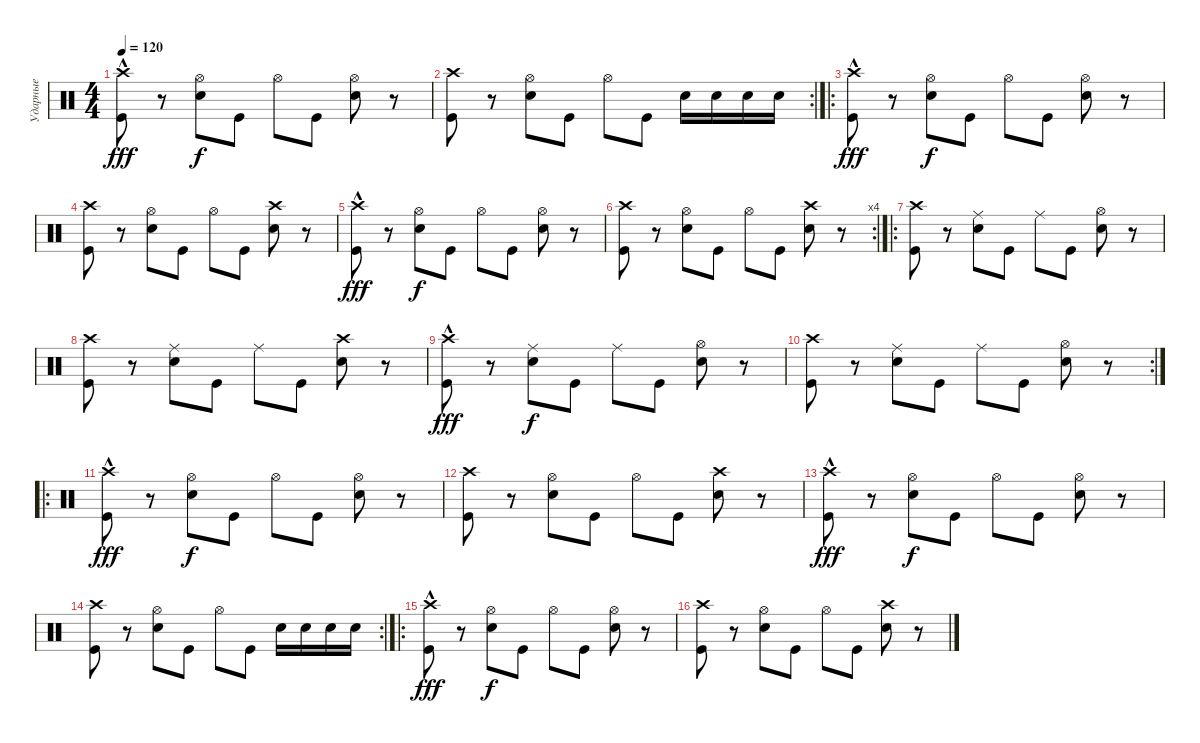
\track ("Ударные" "Ударные") {instrument percussion}
\staff {score}
\articulation defaults
\ts (4 4)
\tempo 120
\clef neutral
\ks c
("Kick (hit)" "Crash high (hit)"{hac}).8{dy fff} r.8 ("Snare (hit) 2" "Hi-Hat (open)").8{dy f} "Kick (hit)".8 "Hi-Hat (open)".8 "Kick (hit)".8 ("Snare (hit) 2" "Hi-Hat (open)").8 r.8 |
\rc 2
("Kick (hit)" "Crash high (hit)").8 r.8 ("Snare (hit) 2" "Hi-Hat (open)").8 "Kick (hit)".8 "Hi-Hat (open)".8 "Kick (hit)".8 "Snare (hit) 2".16 "Snare (hit) 2".16 "Snare (hit) 2".16 "Snare (hit) 2".16 |
\ro
("Kick (hit)" "Crash high (hit)"{hac}).8{dy fff} r.8 ("Snare (hit) 2" "Hi-Hat (open)").8{dy f} "Kick (hit)".8 "Hi-Hat (open)".8 "Kick (hit)".8 ("Snare (hit) 2" "Hi-Hat (open)").8 r.8 |
("Kick (hit)" "Crash high (hit)").8 r.8 ("Snare (hit) 2" "Hi-Hat (open)").8 "Kick (hit)".8 "Hi-Hat (open)".8 "Kick (hit)".8 ("Snare (hit) 2" "Crash high (hit)").8 r.8 |
("Kick (hit)" "Crash high (hit)"{hac}).8{dy fff} r.8 ("Snare (hit) 2" "Hi-Hat (open)").8{dy f} "Kick (hit)".8 "Hi-Hat (open)".8 "Kick (hit)".8 ("Snare (hit) 2" "Hi-Hat (open)").8 r.8 |
\rc 4
("Kick (hit)" "Crash high (hit)").8 r.8 ("Snare (hit) 2" "Hi-Hat (open)").8 "Kick (hit)".8 "Hi-Hat (open)".8 "Kick (hit)".8 ("Snare (hit) 2" "Crash high (hit)").8 r.8 |
\ro
("Crash high (hit)" "Kick (hit)").8 r.8 ("Snare (hit) 2" "Ride (middle)").8 "Kick (hit)".8 "Ride (middle)".8 "Kick (hit)".8 ("Snare (hit) 2" "Hi-Hat (open)").8 r.8 |
("Crash high (hit)" "Kick (hit)").8 r.8 ("Snare (hit) 2" "Ride (middle)").8 "Kick (hit)".8 "Ride (middle)".8 "Kick (hit)".8 ("Snare (hit) 2" "Crash high (hit)").8 r.8 |
("Crash high (hit)"{hac} "Kick (hit)").8{dy fff} r.8 ("Snare (hit) 2" "Ride (middle)").8{dy f} "Kick (hit)".8 "Ride (middle)".8 "Kick (hit)".8 ("Snare (hit) 2" "Hi-Hat (open)").8 r.8 |
\rc 2
("Crash high (hit)" "Kick (hit)").8 r.8 ("Snare (hit) 2" "Ride (middle)").8 "Kick (hit)".8 "Ride (middle)".8 "Kick (hit)".8 ("Snare (hit) 2" "Hi-Hat (open)").8 r.8 |
\ro
("Kick (hit)" "Crash high (hit)"{hac}).8{dy fff} r.8 ("Snare (hit) 2" "Hi-Hat (open)").8{dy f} "Kick (hit)".8 "Hi-Hat (open)".8 "Kick (hit)".8 ("Snare (hit) 2" "Hi-Hat (open)").8 r.8 |
("Kick (hit)" "Crash high (hit)").8 r.8 ("Snare (hit) 2" "Hi-Hat (open)").8 "Kick (hit)".8 "Hi-Hat (open)".8 "Kick (hit)".8 ("Snare (hit) 2" "Crash high (hit)").8 r.8 |
("Kick (hit)" "Crash high (hit)"{hac}).8{dy fff} r.8 ("Snare (hit) 2" "Hi-Hat (open)").8{dy f} "Kick (hit)".8 "Hi-Hat (open)".8 "Kick (hit)".8 ("Snare (hit) 2" "Hi-Hat (open)").8 r.8 |
\rc 2
("Kick (hit)" "Crash high (hit)").8 r.8 ("Snare (hit) 2" "Hi-Hat (open)").8 "Kick (hit)".8 "Hi-Hat (open)".8 "Kick (hit)".8 "Snare (hit) 2".16 "Snare (hit) 2".16 "Snare (hit) 2".16 "Snare (hit) 2".16 |
\ro
("Kick (hit)" "Crash high (hit)"{hac}).8{dy fff} r.8 ("Snare (hit) 2" "Hi-Hat (open)").8{dy f} "Kick (hit)".8 "Hi-Hat (open)".8 "Kick (hit)".8 ("Snare (hit) 2" "Hi-Hat (open)").8 r.8 |
("Kick (hit)" "Crash high (hit)").8 r.8 ("Snare (hit) 2" "Hi-Hat (open)").8 "Kick (hit)".8 "Hi-Hat (open)".8 "Kick (hit)".8 ("Snare (hit) 2" "Crash high (hit)").8 r.8
